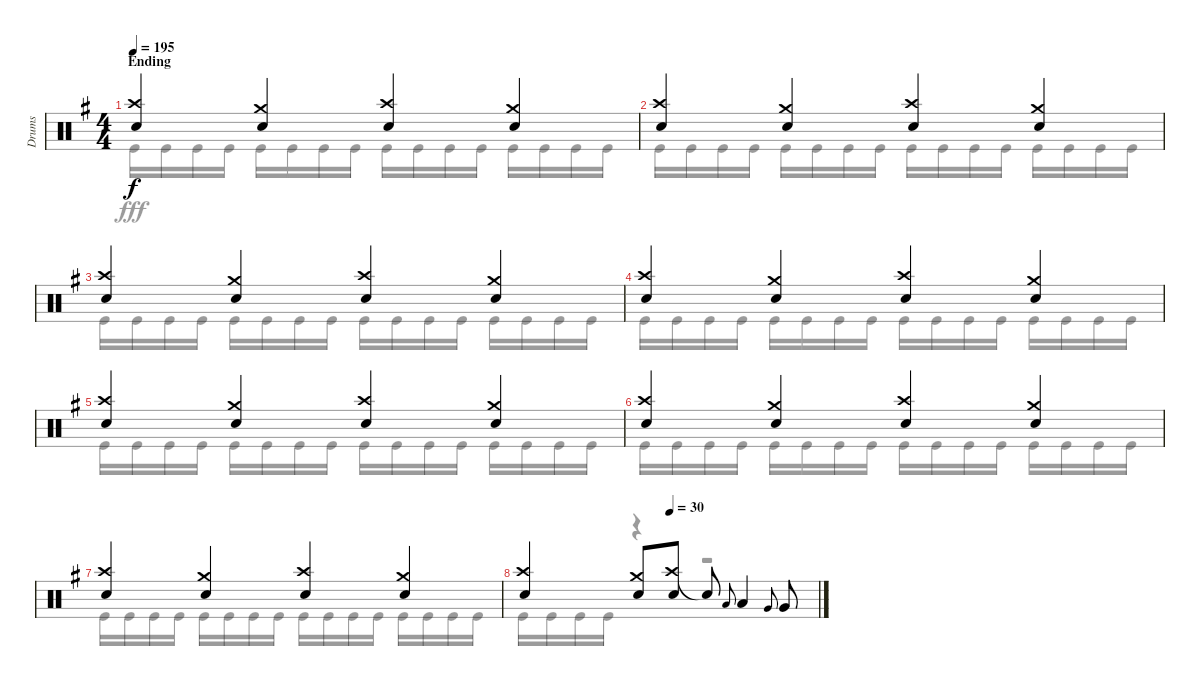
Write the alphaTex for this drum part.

\track ("Drums" "Drums") {instrument percussion}
\staff {score}
\articulation defaults
\voice
\ts (4 4)
\section ("" "Ending")
\tempo 195
\clef neutral
\ks g
("Crash high (hit)" "Snare (hit) 2").4{dy f} ("Crash medium (hit)" "Snare (hit) 2").4 ("Crash high (hit)" "Snare (hit) 2").4 ("Crash medium (hit)" "Snare (hit) 2").4 |
("Crash high (hit)" "Snare (hit) 2").4 ("Crash medium (hit)" "Snare (hit) 2").4 ("Crash high (hit)" "Snare (hit) 2").4 ("Crash medium (hit)" "Snare (hit) 2").4 |
("Crash high (hit)" "Snare (hit) 2").4 ("Crash medium (hit)" "Snare (hit) 2").4 ("Crash high (hit)" "Snare (hit) 2").4 ("Crash medium (hit)" "Snare (hit) 2").4 |
("Crash high (hit)" "Snare (hit) 2").4 ("Crash medium (hit)" "Snare (hit) 2").4 ("Crash high (hit)" "Snare (hit) 2").4 ("Crash medium (hit)" "Snare (hit) 2").4 |
("Crash high (hit)" "Snare (hit) 2").4 ("Crash medium (hit)" "Snare (hit) 2").4 ("Crash high (hit)" "Snare (hit) 2").4 ("Crash medium (hit)" "Snare (hit) 2").4 |
("Crash high (hit)" "Snare (hit) 2").4 ("Crash medium (hit)" "Snare (hit) 2").4 ("Crash high (hit)" "Snare (hit) 2").4 ("Crash medium (hit)" "Snare (hit) 2").4 |
("Crash high (hit)" "Snare (hit) 2").4 ("Crash medium (hit)" "Snare (hit) 2").4 ("Crash high (hit)" "Snare (hit) 2").4 ("Crash medium (hit)" "Snare (hit) 2").4 |
\tempo (30 0.5)
("Crash high (hit)" "Snare (hit) 2").4 ("Crash medium (hit)" "Snare (hit) 2").8 ("Crash high (hit)" "Snare (hit) 2").8 "Snare (hit)"{t}.8 "Low Tom (hit)".8{gr onbeat} "Low Tom (hit)".4 "Very Low Tom (hit)".8{gr onbeat} "Very Low Tom (hit)".8
\voice
\clef neutral
\ottava regular
\simile none
\ks g "Kick (hit)".16{dy fff} "Kick (hit)".16 "Kick (hit)".16 "Kick (hit)".16 "Kick (hit)".16 "Kick (hit)".16 "Kick (hit)".16 "Kick (hit)".16 "Kick (hit)".16 "Kick (hit)".16 "Kick (hit)".16 "Kick (hit)".16 "Kick (hit)".16 "Kick (hit)".16 "Kick (hit)".16 "Kick (hit)".16
|
"Kick (hit)".16 "Kick (hit)".16 "Kick (hit)".16 "Kick (hit)".16 "Kick (hit)".16 "Kick (hit)".16 "Kick (hit)".16 "Kick (hit)".16 "Kick (hit)".16 "Kick (hit)".16 "Kick (hit)".16 "Kick (hit)".16 "Kick (hit)".16 "Kick (hit)".16 "Kick (hit)".16 "Kick (hit)".16 |
"Kick (hit)".16 "Kick (hit)".16 "Kick (hit)".16 "Kick (hit)".16 "Kick (hit)".16 "Kick (hit)".16 "Kick (hit)".16 "Kick (hit)".16 "Kick (hit)".16 "Kick (hit)".16 "Kick (hit)".16 "Kick (hit)".16 "Kick (hit)".16 "Kick (hit)".16 "Kick (hit)".16 "Kick (hit)".16 |
"Kick (hit)".16 "Kick (hit)".16 "Kick (hit)".16 "Kick (hit)".16 "Kick (hit)".16 "Kick (hit)".16 "Kick (hit)".16 "Kick (hit)".16 "Kick (hit)".16 "Kick (hit)".16 "Kick (hit)".16 "Kick (hit)".16 "Kick (hit)".16 "Kick (hit)".16 "Kick (hit)".16 "Kick (hit)".16 |
"Kick (hit)".16 "Kick (hit)".16 "Kick (hit)".16 "Kick (hit)".16 "Kick (hit)".16 "Kick (hit)".16 "Kick (hit)".16 "Kick (hit)".16 "Kick (hit)".16 "Kick (hit)".16 "Kick (hit)".16 "Kick (hit)".16 "Kick (hit)".16 "Kick (hit)".16 "Kick (hit)".16 "Kick (hit)".16 |
"Kick (hit)".16 "Kick (hit)".16 "Kick (hit)".16 "Kick (hit)".16 "Kick (hit)".16 "Kick (hit)".16 "Kick (hit)".16 "Kick (hit)".16 "Kick (hit)".16 "Kick (hit)".16 "Kick (hit)".16 "Kick (hit)".16 "Kick (hit)".16 "Kick (hit)".16 "Kick (hit)".16 "Kick (hit)".16 |
"Kick (hit)".16 "Kick (hit)".16 "Kick (hit)".16 "Kick (hit)".16 "Kick (hit)".16 "Kick (hit)".16 "Kick (hit)".16 "Kick (hit)".16 "Kick (hit)".16 "Kick (hit)".16 "Kick (hit)".16 "Kick (hit)".16 "Kick (hit)".16 "Kick (hit)".16 "Kick (hit)".16 "Kick (hit)".16 |
"Kick (hit)".16 "Kick (hit)".16 "Kick (hit)".16 "Kick (hit)".16 r.4 r.2
